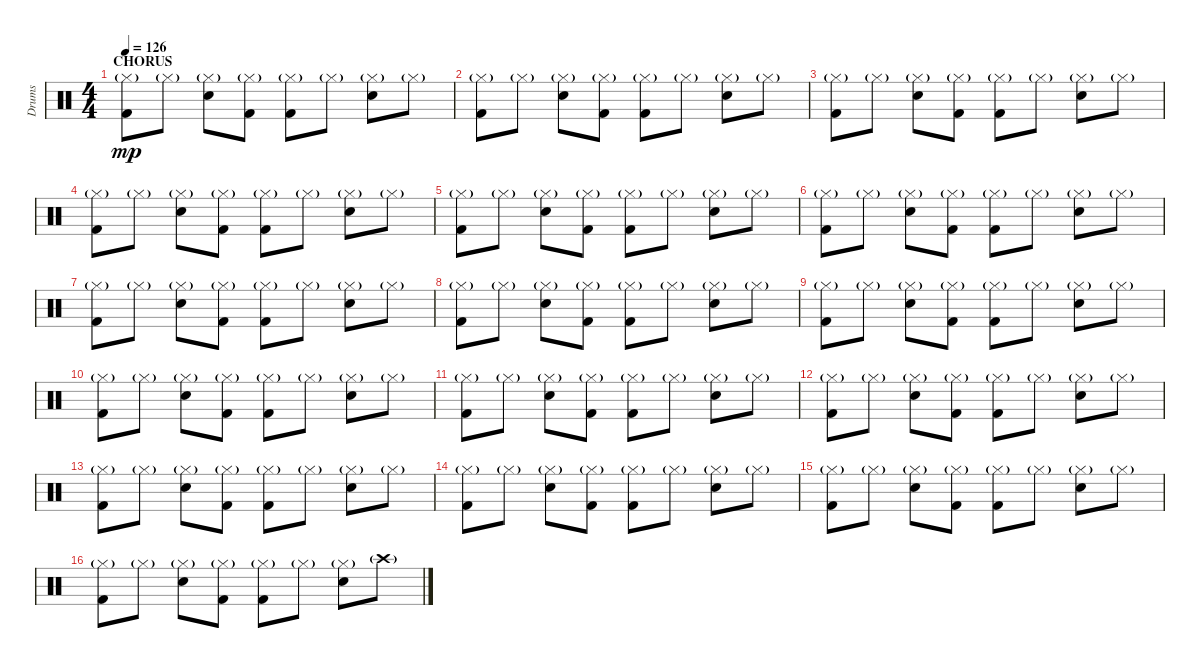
\track ("Drums" "Drums") {instrument percussion}
\staff {score}
\articulation defaults
\ts (4 4)
\section ("" "CHORUS")
\tempo 126
\clef neutral
\ks c
("Hi-Hat (closed)"{g} "Kick (hit) 2").8{dy mp} "Hi-Hat (closed)"{g}.8 ("Hi-Hat (closed)"{g} "Snare (hit) 2").8 ("Hi-Hat (closed)"{g} "Kick (hit) 2").8 ("Hi-Hat (closed)"{g} "Kick (hit) 2").8 "Hi-Hat (closed)"{g}.8 ("Hi-Hat (closed)"{g} "Snare (hit) 2").8 "Hi-Hat (closed)"{g}.8 |
("Hi-Hat (closed)"{g} "Kick (hit) 2").8 "Hi-Hat (closed)"{g}.8 ("Hi-Hat (closed)"{g} "Snare (hit) 2").8 ("Hi-Hat (closed)"{g} "Kick (hit) 2").8 ("Hi-Hat (closed)"{g} "Kick (hit) 2").8 "Hi-Hat (closed)"{g}.8 ("Hi-Hat (closed)"{g} "Snare (hit) 2").8 "Hi-Hat (closed)"{g}.8 |
("Hi-Hat (closed)"{g} "Kick (hit) 2").8 "Hi-Hat (closed)"{g}.8 ("Hi-Hat (closed)"{g} "Snare (hit) 2").8 ("Hi-Hat (closed)"{g} "Kick (hit) 2").8 ("Hi-Hat (closed)"{g} "Kick (hit) 2").8 "Hi-Hat (closed)"{g}.8 ("Hi-Hat (closed)"{g} "Snare (hit) 2").8 "Hi-Hat (closed)"{g}.8 |
("Hi-Hat (closed)"{g} "Kick (hit) 2").8 "Hi-Hat (closed)"{g}.8 ("Hi-Hat (closed)"{g} "Snare (hit) 2").8 ("Hi-Hat (closed)"{g} "Kick (hit) 2").8 ("Hi-Hat (closed)"{g} "Kick (hit) 2").8 "Hi-Hat (closed)"{g}.8 ("Hi-Hat (closed)"{g} "Snare (hit) 2").8 "Hi-Hat (closed)"{g}.8 |
("Hi-Hat (closed)"{g} "Kick (hit) 2").8 "Hi-Hat (closed)"{g}.8 ("Hi-Hat (closed)"{g} "Snare (hit) 2").8 ("Hi-Hat (closed)"{g} "Kick (hit) 2").8 ("Hi-Hat (closed)"{g} "Kick (hit) 2").8 "Hi-Hat (closed)"{g}.8 ("Hi-Hat (closed)"{g} "Snare (hit) 2").8 "Hi-Hat (closed)"{g}.8 |
("Hi-Hat (closed)"{g} "Kick (hit) 2").8 "Hi-Hat (closed)"{g}.8 ("Hi-Hat (closed)"{g} "Snare (hit) 2").8 ("Hi-Hat (closed)"{g} "Kick (hit) 2").8 ("Hi-Hat (closed)"{g} "Kick (hit) 2").8 "Hi-Hat (closed)"{g}.8 ("Hi-Hat (closed)"{g} "Snare (hit) 2").8 "Hi-Hat (closed)"{g}.8 |
("Hi-Hat (closed)"{g} "Kick (hit) 2").8 "Hi-Hat (closed)"{g}.8 ("Hi-Hat (closed)"{g} "Snare (hit) 2").8 ("Hi-Hat (closed)"{g} "Kick (hit) 2").8 ("Hi-Hat (closed)"{g} "Kick (hit) 2").8 "Hi-Hat (closed)"{g}.8 ("Hi-Hat (closed)"{g} "Snare (hit) 2").8 "Hi-Hat (closed)"{g}.8 |
("Hi-Hat (closed)"{g} "Kick (hit) 2").8 "Hi-Hat (closed)"{g}.8 ("Hi-Hat (closed)"{g} "Snare (hit) 2").8 ("Hi-Hat (closed)"{g} "Kick (hit) 2").8 ("Hi-Hat (closed)"{g} "Kick (hit) 2").8 "Hi-Hat (closed)"{g}.8 ("Hi-Hat (closed)"{g} "Snare (hit) 2").8 "Hi-Hat (closed)"{g}.8 |
("Hi-Hat (closed)"{g} "Kick (hit) 2").8 "Hi-Hat (closed)"{g}.8 ("Hi-Hat (closed)"{g} "Snare (hit) 2").8 ("Hi-Hat (closed)"{g} "Kick (hit) 2").8 ("Hi-Hat (closed)"{g} "Kick (hit) 2").8 "Hi-Hat (closed)"{g}.8 ("Hi-Hat (closed)"{g} "Snare (hit) 2").8 "Hi-Hat (closed)"{g}.8 |
("Hi-Hat (closed)"{g} "Kick (hit) 2").8 "Hi-Hat (closed)"{g}.8 ("Hi-Hat (closed)"{g} "Snare (hit) 2").8 ("Hi-Hat (closed)"{g} "Kick (hit) 2").8 ("Hi-Hat (closed)"{g} "Kick (hit) 2").8 "Hi-Hat (closed)"{g}.8 ("Hi-Hat (closed)"{g} "Snare (hit) 2").8 "Hi-Hat (closed)"{g}.8 |
("Hi-Hat (closed)"{g} "Kick (hit) 2").8 "Hi-Hat (closed)"{g}.8 ("Hi-Hat (closed)"{g} "Snare (hit) 2").8 ("Hi-Hat (closed)"{g} "Kick (hit) 2").8 ("Hi-Hat (closed)"{g} "Kick (hit) 2").8 "Hi-Hat (closed)"{g}.8 ("Hi-Hat (closed)"{g} "Snare (hit) 2").8 "Hi-Hat (closed)"{g}.8 |
("Hi-Hat (closed)"{g} "Kick (hit) 2").8 "Hi-Hat (closed)"{g}.8 ("Hi-Hat (closed)"{g} "Snare (hit) 2").8 ("Hi-Hat (closed)"{g} "Kick (hit) 2").8 ("Hi-Hat (closed)"{g} "Kick (hit) 2").8 "Hi-Hat (closed)"{g}.8 ("Hi-Hat (closed)"{g} "Snare (hit) 2").8 "Hi-Hat (closed)"{g}.8 |
("Hi-Hat (closed)"{g} "Kick (hit) 2").8 "Hi-Hat (closed)"{g}.8 ("Hi-Hat (closed)"{g} "Snare (hit) 2").8 ("Hi-Hat (closed)"{g} "Kick (hit) 2").8 ("Hi-Hat (closed)"{g} "Kick (hit) 2").8 "Hi-Hat (closed)"{g}.8 ("Hi-Hat (closed)"{g} "Snare (hit) 2").8 "Hi-Hat (closed)"{g}.8 |
("Hi-Hat (closed)"{g} "Kick (hit) 2").8 "Hi-Hat (closed)"{g}.8 ("Hi-Hat (closed)"{g} "Snare (hit) 2").8 ("Hi-Hat (closed)"{g} "Kick (hit) 2").8 ("Hi-Hat (closed)"{g} "Kick (hit) 2").8 "Hi-Hat (closed)"{g}.8 ("Hi-Hat (closed)"{g} "Snare (hit) 2").8 "Hi-Hat (closed)"{g}.8 |
("Hi-Hat (closed)"{g} "Kick (hit) 2").8 "Hi-Hat (closed)"{g}.8 ("Hi-Hat (closed)"{g} "Snare (hit) 2").8 ("Hi-Hat (closed)"{g} "Kick (hit) 2").8 ("Hi-Hat (closed)"{g} "Kick (hit) 2").8 "Hi-Hat (closed)"{g}.8 ("Hi-Hat (closed)"{g} "Snare (hit) 2").8 "Hi-Hat (closed)"{g}.8 |
("Hi-Hat (closed)"{g} "Kick (hit) 2").8 "Hi-Hat (closed)"{g}.8 ("Hi-Hat (closed)"{g} "Snare (hit) 2").8 ("Hi-Hat (closed)"{g} "Kick (hit) 2").8 ("Hi-Hat (closed)"{g} "Kick (hit) 2").8 "Hi-Hat (closed)"{g}.8 ("Hi-Hat (closed)"{g} "Snare (hit) 2").8 "Crash high (hit)"{g}.8
